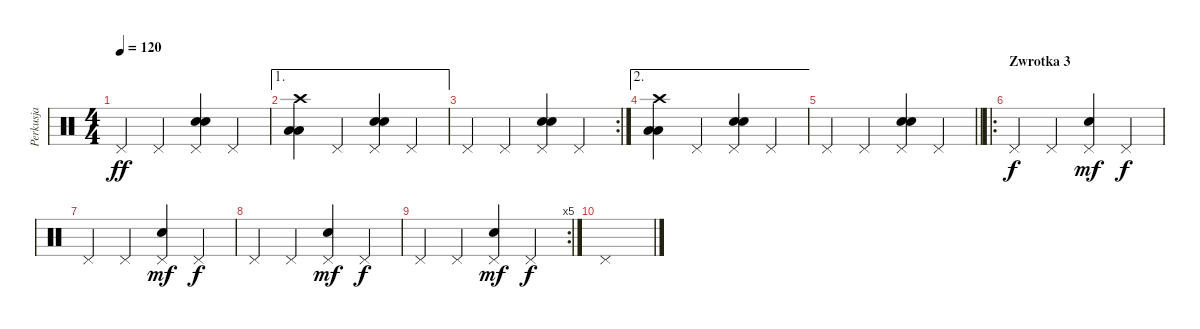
\track ("Perkusja" "Perkusja") {instrument percussion}
\staff {score}
\articulation defaults
\ts (4 4)
\tempo 120
\clef neutral
\ks c "Pedal Hi-Hat (hit)".4{dy ff} "Pedal Hi-Hat (hit)".4
("Pedal Hi-Hat (hit)" "Snare (hit) 2" "Snare (hit) 2").4 "Pedal Hi-Hat (hit)".4 |
\ae 1
("Low Tom (hit)" "Low Tom (hit)" "Crash high (hit)").4 "Pedal Hi-Hat (hit)".4 ("Pedal Hi-Hat (hit)" "Snare (hit) 2" "Snare (hit) 2").4 "Pedal Hi-Hat (hit)".4 |
\rc 2 "Pedal Hi-Hat (hit)".4 "Pedal Hi-Hat (hit)".4
("Pedal Hi-Hat (hit)" "Snare (hit) 2" "Snare (hit) 2").4 "Pedal Hi-Hat (hit)".4 |
\ae 2
("Low Tom (hit)" "Low Tom (hit)" "Crash high (hit)").4 "Pedal Hi-Hat (hit)".4 ("Pedal Hi-Hat (hit)" "Snare (hit) 2" "Snare (hit) 2").4 "Pedal Hi-Hat (hit)".4 |
\barLineRight lightlight "Pedal Hi-Hat (hit)".4 "Pedal Hi-Hat (hit)".4
("Pedal Hi-Hat (hit)" "Snare (hit) 2" "Snare (hit) 2").4 "Pedal Hi-Hat (hit)".4 |
\ro
\section ("" "Zwrotka 3")
"Pedal Hi-Hat (hit)".4{dy f} "Pedal Hi-Hat (hit)".4 ("Pedal Hi-Hat (hit)" "Snare (hit) 2").4{dy mf} "Pedal Hi-Hat (hit)".4{dy f} |
"Pedal Hi-Hat (hit)".4 "Pedal Hi-Hat (hit)".4 ("Pedal Hi-Hat (hit)" "Snare (hit) 2").4{dy mf} "Pedal Hi-Hat (hit)".4{dy f} |
"Pedal Hi-Hat (hit)".4 "Pedal Hi-Hat (hit)".4 ("Pedal Hi-Hat (hit)" "Snare (hit) 2").4{dy mf} "Pedal Hi-Hat (hit)".4{dy f} |
\rc 5 "Pedal Hi-Hat (hit)".4 "Pedal Hi-Hat (hit)".4
("Pedal Hi-Hat (hit)" "Snare (hit) 2").4{dy mf} "Pedal Hi-Hat (hit)".4{dy f} |
"Pedal Hi-Hat (hit)".1
